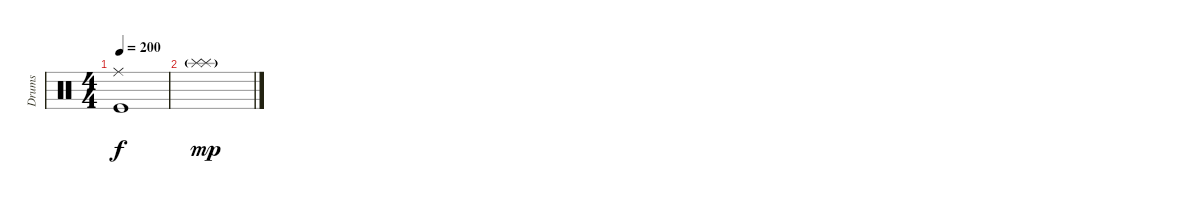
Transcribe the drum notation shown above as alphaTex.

\track ("Drums" "Drums") {instrument percussion}
\staff {score}
\articulation defaults
\ts (4 4)
\tempo 200
\clef neutral
\ks c
("Ride (middle)" "Kick (hit)").1{dy f} |
("Splash (hit)"{g} "Splash (hit)").1{dy mp}
